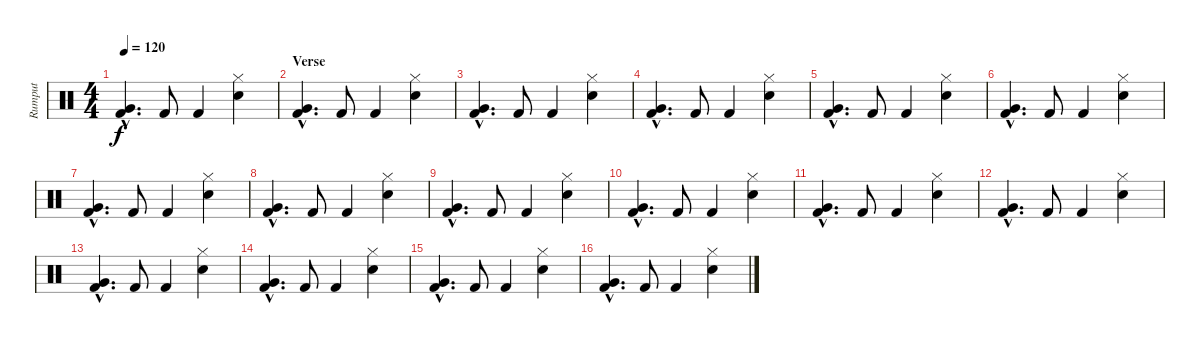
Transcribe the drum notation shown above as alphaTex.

\track ("Rumput" "Rumput") {instrument percussion}
\staff {score}
\articulation defaults
\ts (4 4)
\tempo 120
\clef neutral
\ks c
("Very Low Tom (hit)"{hac} "Kick (hit) 2"{hac}).4{d dy f} "Kick (hit) 2".8 "Kick (hit) 2".4 ("Hi-Hat (closed)" "Snare (hit) 2").4 |
\section ("" "Verse")
("Very Low Tom (hit)"{hac} "Kick (hit) 2"{hac}).4{d} "Kick (hit) 2".8 "Kick (hit) 2".4 ("Hi-Hat (closed)" "Snare (hit) 2").4 |
("Very Low Tom (hit)"{hac} "Kick (hit) 2"{hac}).4{d} "Kick (hit) 2".8 "Kick (hit) 2".4 ("Hi-Hat (closed)" "Snare (hit) 2").4 |
("Very Low Tom (hit)"{hac} "Kick (hit) 2"{hac}).4{d} "Kick (hit) 2".8 "Kick (hit) 2".4 ("Hi-Hat (closed)" "Snare (hit) 2").4 |
("Very Low Tom (hit)"{hac} "Kick (hit) 2"{hac}).4{d} "Kick (hit) 2".8 "Kick (hit) 2".4 ("Hi-Hat (closed)" "Snare (hit) 2").4 |
("Very Low Tom (hit)"{hac} "Kick (hit) 2"{hac}).4{d} "Kick (hit) 2".8 "Kick (hit) 2".4 ("Hi-Hat (closed)" "Snare (hit) 2").4 |
("Very Low Tom (hit)"{hac} "Kick (hit) 2"{hac}).4{d} "Kick (hit) 2".8 "Kick (hit) 2".4 ("Hi-Hat (closed)" "Snare (hit) 2").4 |
("Very Low Tom (hit)"{hac} "Kick (hit) 2"{hac}).4{d} "Kick (hit) 2".8 "Kick (hit) 2".4 ("Hi-Hat (closed)" "Snare (hit) 2").4 |
("Very Low Tom (hit)"{hac} "Kick (hit) 2"{hac}).4{d} "Kick (hit) 2".8 "Kick (hit) 2".4 ("Hi-Hat (closed)" "Snare (hit) 2").4 |
("Very Low Tom (hit)"{hac} "Kick (hit) 2"{hac}).4{d} "Kick (hit) 2".8 "Kick (hit) 2".4 ("Hi-Hat (closed)" "Snare (hit) 2").4 |
("Very Low Tom (hit)"{hac} "Kick (hit) 2"{hac}).4{d} "Kick (hit) 2".8 "Kick (hit) 2".4 ("Hi-Hat (closed)" "Snare (hit) 2").4 |
("Very Low Tom (hit)"{hac} "Kick (hit) 2"{hac}).4{d} "Kick (hit) 2".8 "Kick (hit) 2".4 ("Hi-Hat (closed)" "Snare (hit) 2").4 |
("Very Low Tom (hit)"{hac} "Kick (hit) 2"{hac}).4{d} "Kick (hit) 2".8 "Kick (hit) 2".4 ("Hi-Hat (closed)" "Snare (hit) 2").4 |
("Very Low Tom (hit)"{hac} "Kick (hit) 2"{hac}).4{d} "Kick (hit) 2".8 "Kick (hit) 2".4 ("Hi-Hat (closed)" "Snare (hit) 2").4 |
("Very Low Tom (hit)"{hac} "Kick (hit) 2"{hac}).4{d} "Kick (hit) 2".8 "Kick (hit) 2".4 ("Hi-Hat (closed)" "Snare (hit) 2").4 |
("Very Low Tom (hit)"{hac} "Kick (hit) 2"{hac}).4{d} "Kick (hit) 2".8 "Kick (hit) 2".4 ("Hi-Hat (closed)" "Snare (hit) 2").4
